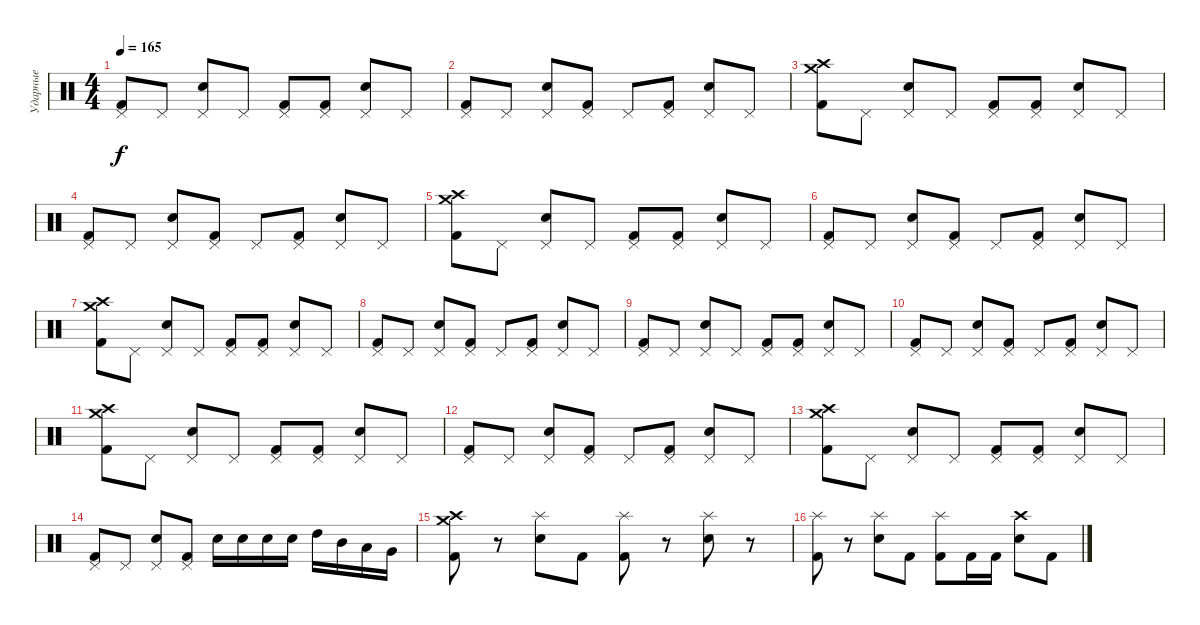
\track ("Ударные" "Ударные") {instrument percussion}
\staff {score}
\articulation defaults
\ts (4 4)
\tempo 165
\clef neutral
\ks c
("Pedal Hi-Hat (hit)" "Kick (hit) 2").8{dy f} "Pedal Hi-Hat (hit)".8 ("Pedal Hi-Hat (hit)" "Electric Snare (hit)").8 "Pedal Hi-Hat (hit)".8 ("Pedal Hi-Hat (hit)" "Kick (hit) 2").8 ("Pedal Hi-Hat (hit)" "Kick (hit) 2").8 ("Pedal Hi-Hat (hit)" "Electric Snare (hit)").8 "Pedal Hi-Hat (hit)".8 |
("Pedal Hi-Hat (hit)" "Kick (hit) 2").8 "Pedal Hi-Hat (hit)".8 ("Pedal Hi-Hat (hit)" "Electric Snare (hit)").8 ("Pedal Hi-Hat (hit)" "Kick (hit) 2").8 "Pedal Hi-Hat (hit)".8 ("Pedal Hi-Hat (hit)" "Kick (hit) 2").8 ("Pedal Hi-Hat (hit)" "Electric Snare (hit)").8 "Pedal Hi-Hat (hit)".8 |
("Crash medium (hit)" "Crash high (hit)" "Kick (hit) 2").8 "Pedal Hi-Hat (hit)".8 ("Pedal Hi-Hat (hit)" "Electric Snare (hit)").8 "Pedal Hi-Hat (hit)".8 ("Pedal Hi-Hat (hit)" "Kick (hit) 2").8 ("Pedal Hi-Hat (hit)" "Kick (hit) 2").8 ("Pedal Hi-Hat (hit)" "Electric Snare (hit)").8 "Pedal Hi-Hat (hit)".8 |
("Pedal Hi-Hat (hit)" "Kick (hit) 2").8 "Pedal Hi-Hat (hit)".8 ("Pedal Hi-Hat (hit)" "Electric Snare (hit)").8 ("Pedal Hi-Hat (hit)" "Kick (hit) 2").8 "Pedal Hi-Hat (hit)".8 ("Pedal Hi-Hat (hit)" "Kick (hit) 2").8 ("Pedal Hi-Hat (hit)" "Electric Snare (hit)").8 "Pedal Hi-Hat (hit)".8 |
("Crash medium (hit)" "Crash high (hit)" "Kick (hit) 2").8 "Pedal Hi-Hat (hit)".8 ("Pedal Hi-Hat (hit)" "Electric Snare (hit)").8 "Pedal Hi-Hat (hit)".8 ("Pedal Hi-Hat (hit)" "Kick (hit) 2").8 ("Pedal Hi-Hat (hit)" "Kick (hit) 2").8 ("Pedal Hi-Hat (hit)" "Electric Snare (hit)").8 "Pedal Hi-Hat (hit)".8 |
("Pedal Hi-Hat (hit)" "Kick (hit) 2").8 "Pedal Hi-Hat (hit)".8 ("Pedal Hi-Hat (hit)" "Electric Snare (hit)").8 ("Pedal Hi-Hat (hit)" "Kick (hit) 2").8 "Pedal Hi-Hat (hit)".8 ("Pedal Hi-Hat (hit)" "Kick (hit) 2").8 ("Pedal Hi-Hat (hit)" "Electric Snare (hit)").8 "Pedal Hi-Hat (hit)".8 |
("Crash medium (hit)" "Crash high (hit)" "Kick (hit) 2").8 "Pedal Hi-Hat (hit)".8 ("Pedal Hi-Hat (hit)" "Electric Snare (hit)").8 "Pedal Hi-Hat (hit)".8 ("Pedal Hi-Hat (hit)" "Kick (hit) 2").8 ("Pedal Hi-Hat (hit)" "Kick (hit) 2").8 ("Pedal Hi-Hat (hit)" "Electric Snare (hit)").8 "Pedal Hi-Hat (hit)".8 |
("Pedal Hi-Hat (hit)" "Kick (hit) 2").8 "Pedal Hi-Hat (hit)".8 ("Pedal Hi-Hat (hit)" "Electric Snare (hit)").8 ("Pedal Hi-Hat (hit)" "Kick (hit) 2").8 "Pedal Hi-Hat (hit)".8 ("Pedal Hi-Hat (hit)" "Kick (hit) 2").8 ("Pedal Hi-Hat (hit)" "Electric Snare (hit)").8 "Pedal Hi-Hat (hit)".8 |
("Pedal Hi-Hat (hit)" "Kick (hit) 2").8 "Pedal Hi-Hat (hit)".8 ("Pedal Hi-Hat (hit)" "Electric Snare (hit)").8 "Pedal Hi-Hat (hit)".8 ("Pedal Hi-Hat (hit)" "Kick (hit) 2").8 ("Pedal Hi-Hat (hit)" "Kick (hit) 2").8 ("Pedal Hi-Hat (hit)" "Electric Snare (hit)").8 "Pedal Hi-Hat (hit)".8 |
("Pedal Hi-Hat (hit)" "Kick (hit) 2").8 "Pedal Hi-Hat (hit)".8 ("Pedal Hi-Hat (hit)" "Electric Snare (hit)").8 ("Pedal Hi-Hat (hit)" "Kick (hit) 2").8 "Pedal Hi-Hat (hit)".8 ("Pedal Hi-Hat (hit)" "Kick (hit) 2").8 ("Pedal Hi-Hat (hit)" "Electric Snare (hit)").8 "Pedal Hi-Hat (hit)".8 |
("Crash medium (hit)" "Crash high (hit)" "Kick (hit) 2").8 "Pedal Hi-Hat (hit)".8 ("Pedal Hi-Hat (hit)" "Electric Snare (hit)").8 "Pedal Hi-Hat (hit)".8 ("Pedal Hi-Hat (hit)" "Kick (hit) 2").8 ("Pedal Hi-Hat (hit)" "Kick (hit) 2").8 ("Pedal Hi-Hat (hit)" "Electric Snare (hit)").8 "Pedal Hi-Hat (hit)".8 |
("Pedal Hi-Hat (hit)" "Kick (hit) 2").8 "Pedal Hi-Hat (hit)".8 ("Pedal Hi-Hat (hit)" "Electric Snare (hit)").8 ("Pedal Hi-Hat (hit)" "Kick (hit) 2").8 "Pedal Hi-Hat (hit)".8 ("Pedal Hi-Hat (hit)" "Kick (hit) 2").8 ("Pedal Hi-Hat (hit)" "Electric Snare (hit)").8 "Pedal Hi-Hat (hit)".8 |
("Crash medium (hit)" "Crash high (hit)" "Kick (hit) 2").8 "Pedal Hi-Hat (hit)".8 ("Pedal Hi-Hat (hit)" "Electric Snare (hit)").8 "Pedal Hi-Hat (hit)".8 ("Pedal Hi-Hat (hit)" "Kick (hit) 2").8 ("Pedal Hi-Hat (hit)" "Kick (hit) 2").8 ("Pedal Hi-Hat (hit)" "Electric Snare (hit)").8 "Pedal Hi-Hat (hit)".8 |
("Pedal Hi-Hat (hit)" "Kick (hit) 2").8 "Pedal Hi-Hat (hit)".8 ("Pedal Hi-Hat (hit)" "Electric Snare (hit)").8 ("Pedal Hi-Hat (hit)" "Kick (hit) 2").8 "Electric Snare (hit)".16 "Electric Snare (hit)".16 "Electric Snare (hit)".16 "Electric Snare (hit)".16 "High Tom (hit)".16 "Mid Tom (hit)".16 "Low Tom (hit)".16 "Very Low Tom (hit)".16 |
("Crash medium (hit)" "Crash high (hit)" "Kick (hit) 2").8 r.8 ("Splash (hit)" "Electric Snare (hit)").8 "Kick (hit) 2".8 ("Splash (hit)" "Kick (hit) 2").8 r.8 ("Splash (hit)" "Electric Snare (hit)").8 r.8 |
("Splash (hit)" "Kick (hit) 2").8 r.8 ("Splash (hit)" "Electric Snare (hit)").8 "Kick (hit) 2".8 ("Splash (hit)" "Kick (hit) 2").8 "Kick (hit) 2".16 "Kick (hit) 2".16 ("Crash high (hit)" "Electric Snare (hit)").8 "Kick (hit) 2".8
